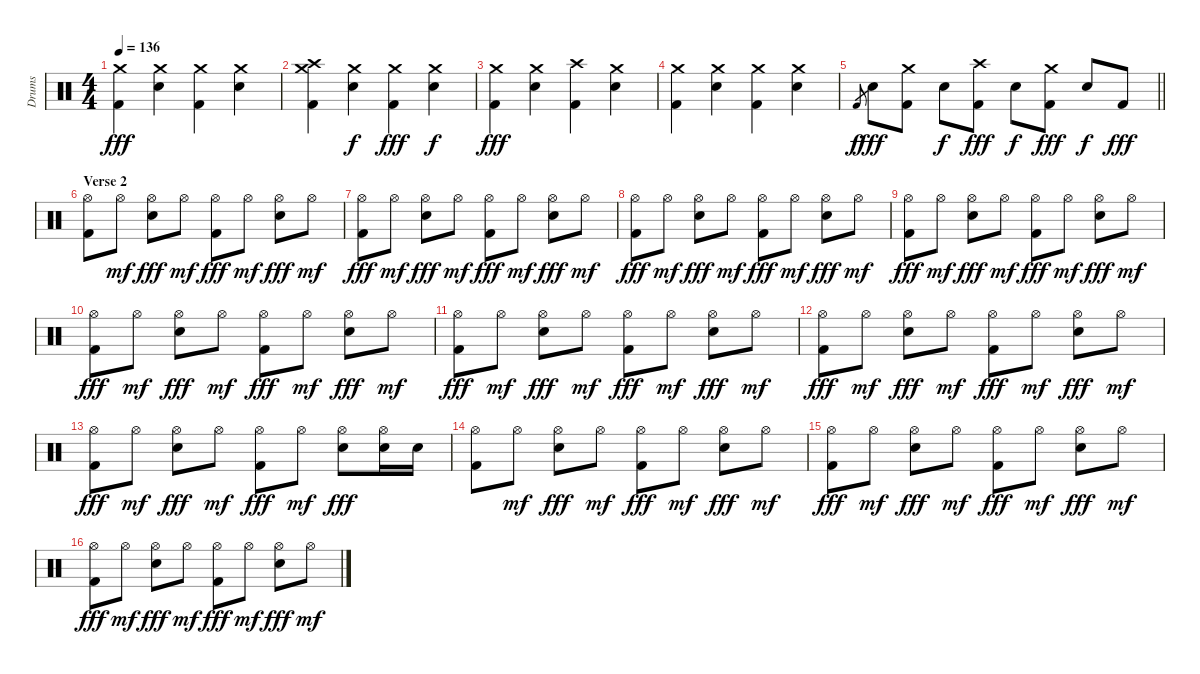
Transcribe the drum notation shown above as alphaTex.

\track ("Drums" "Drums") {instrument percussion}
\staff {score}
\articulation defaults
\ts (4 4)
\tempo 136
\clef neutral
\ks c
("Crash medium (hit)" "Kick (hit) 2").4{dy fff} ("Crash medium (hit)" "Electric Snare (hit)").4 ("Crash medium (hit)" "Kick (hit) 2").4 ("Crash medium (hit)" "Electric Snare (hit)").4 |
("Crash medium (hit)" "Crash high (hit)" "Kick (hit) 2").4 ("Crash medium (hit)" "Electric Snare (hit)").4{dy f} ("Crash medium (hit)" "Kick (hit) 2").4{dy fff} ("Crash medium (hit)" "Electric Snare (hit)").4{dy f} |
("Crash medium (hit)" "Kick (hit) 2").4{dy fff} ("Crash medium (hit)" "Electric Snare (hit)").4 ("Crash high (hit)" "Kick (hit) 2").4 ("Crash medium (hit)" "Electric Snare (hit)").4 |
("Crash medium (hit)" "Kick (hit) 2").4 ("Crash medium (hit)" "Electric Snare (hit)").4 ("Crash medium (hit)" "Kick (hit) 2").4 ("Crash medium (hit)" "Electric Snare (hit)").4 |
\barLineRight lightlight "Kick (hit) 2".8{gr dy f} "Electric Snare (hit)".8{dy fff}
("Crash medium (hit)" "Kick (hit) 2").8 "Electric Snare (hit)".8{dy f} ("Crash high (hit)" "Kick (hit) 2").8{dy fff} "Electric Snare (hit)".8{dy f} ("Crash medium (hit)" "Kick (hit) 2").8{dy fff} "Electric Snare (hit)".8{dy f} "Kick (hit) 2".8{dy fff} |
\section ("" "Verse 2")
("Hi-Hat (open)" "Kick (hit) 2").8 "Hi-Hat (open)".8{dy mf} ("Hi-Hat (open)" "Electric Snare (hit)").8{dy fff} "Hi-Hat (open)".8{dy mf} ("Hi-Hat (open)" "Kick (hit) 2").8{dy fff} "Hi-Hat (open)".8{dy mf} ("Hi-Hat (open)" "Electric Snare (hit)").8{dy fff} "Hi-Hat (open)".8{dy mf} |
("Hi-Hat (open)" "Kick (hit) 2").8{dy fff} "Hi-Hat (open)".8{dy mf} ("Hi-Hat (open)" "Electric Snare (hit)").8{dy fff} "Hi-Hat (open)".8{dy mf} ("Hi-Hat (open)" "Kick (hit) 2").8{dy fff} "Hi-Hat (open)".8{dy mf} ("Hi-Hat (open)" "Electric Snare (hit)").8{dy fff} "Hi-Hat (open)".8{dy mf} |
("Hi-Hat (open)" "Kick (hit) 2").8{dy fff} "Hi-Hat (open)".8{dy mf} ("Hi-Hat (open)" "Electric Snare (hit)").8{dy fff} "Hi-Hat (open)".8{dy mf} ("Hi-Hat (open)" "Kick (hit) 2").8{dy fff} "Hi-Hat (open)".8{dy mf} ("Hi-Hat (open)" "Electric Snare (hit)").8{dy fff} "Hi-Hat (open)".8{dy mf} |
("Hi-Hat (open)" "Kick (hit) 2").8{dy fff} "Hi-Hat (open)".8{dy mf} ("Hi-Hat (open)" "Electric Snare (hit)").8{dy fff} "Hi-Hat (open)".8{dy mf} ("Hi-Hat (open)" "Kick (hit) 2").8{dy fff} "Hi-Hat (open)".8{dy mf} ("Hi-Hat (open)" "Electric Snare (hit)").8{dy fff} "Hi-Hat (open)".8{dy mf} |
("Hi-Hat (open)" "Kick (hit) 2").8{dy fff} "Hi-Hat (open)".8{dy mf} ("Hi-Hat (open)" "Electric Snare (hit)").8{dy fff} "Hi-Hat (open)".8{dy mf} ("Hi-Hat (open)" "Kick (hit) 2").8{dy fff} "Hi-Hat (open)".8{dy mf} ("Hi-Hat (open)" "Electric Snare (hit)").8{dy fff} "Hi-Hat (open)".8{dy mf} |
("Hi-Hat (open)" "Kick (hit) 2").8{dy fff} "Hi-Hat (open)".8{dy mf} ("Hi-Hat (open)" "Electric Snare (hit)").8{dy fff} "Hi-Hat (open)".8{dy mf} ("Hi-Hat (open)" "Kick (hit) 2").8{dy fff} "Hi-Hat (open)".8{dy mf} ("Hi-Hat (open)" "Electric Snare (hit)").8{dy fff} "Hi-Hat (open)".8{dy mf} |
("Hi-Hat (open)" "Kick (hit) 2").8{dy fff} "Hi-Hat (open)".8{dy mf} ("Hi-Hat (open)" "Electric Snare (hit)").8{dy fff} "Hi-Hat (open)".8{dy mf} ("Hi-Hat (open)" "Kick (hit) 2").8{dy fff} "Hi-Hat (open)".8{dy mf} ("Hi-Hat (open)" "Electric Snare (hit)").8{dy fff} "Hi-Hat (open)".8{dy mf} |
("Hi-Hat (open)" "Kick (hit) 2").8{dy fff} "Hi-Hat (open)".8{dy mf} ("Hi-Hat (open)" "Electric Snare (hit)").8{dy fff} "Hi-Hat (open)".8{dy mf} ("Hi-Hat (open)" "Kick (hit) 2").8{dy fff} "Hi-Hat (open)".8{dy mf} ("Hi-Hat (open)" "Electric Snare (hit)").8{dy fff} ("Hi-Hat (open)" "Electric Snare (hit)").16 "Electric Snare (hit)".16 |
("Hi-Hat (open)" "Kick (hit) 2").8 "Hi-Hat (open)".8{dy mf} ("Hi-Hat (open)" "Electric Snare (hit)").8{dy fff} "Hi-Hat (open)".8{dy mf} ("Hi-Hat (open)" "Kick (hit) 2").8{dy fff} "Hi-Hat (open)".8{dy mf} ("Hi-Hat (open)" "Electric Snare (hit)").8{dy fff} "Hi-Hat (open)".8{dy mf} |
("Hi-Hat (open)" "Kick (hit) 2").8{dy fff} "Hi-Hat (open)".8{dy mf} ("Hi-Hat (open)" "Electric Snare (hit)").8{dy fff} "Hi-Hat (open)".8{dy mf} ("Hi-Hat (open)" "Kick (hit) 2").8{dy fff} "Hi-Hat (open)".8{dy mf} ("Hi-Hat (open)" "Electric Snare (hit)").8{dy fff} "Hi-Hat (open)".8{dy mf} |
("Hi-Hat (open)" "Kick (hit) 2").8{dy fff} "Hi-Hat (open)".8{dy mf} ("Hi-Hat (open)" "Electric Snare (hit)").8{dy fff} "Hi-Hat (open)".8{dy mf} ("Hi-Hat (open)" "Kick (hit) 2").8{dy fff} "Hi-Hat (open)".8{dy mf} ("Hi-Hat (open)" "Electric Snare (hit)").8{dy fff} "Hi-Hat (open)".8{dy mf}
